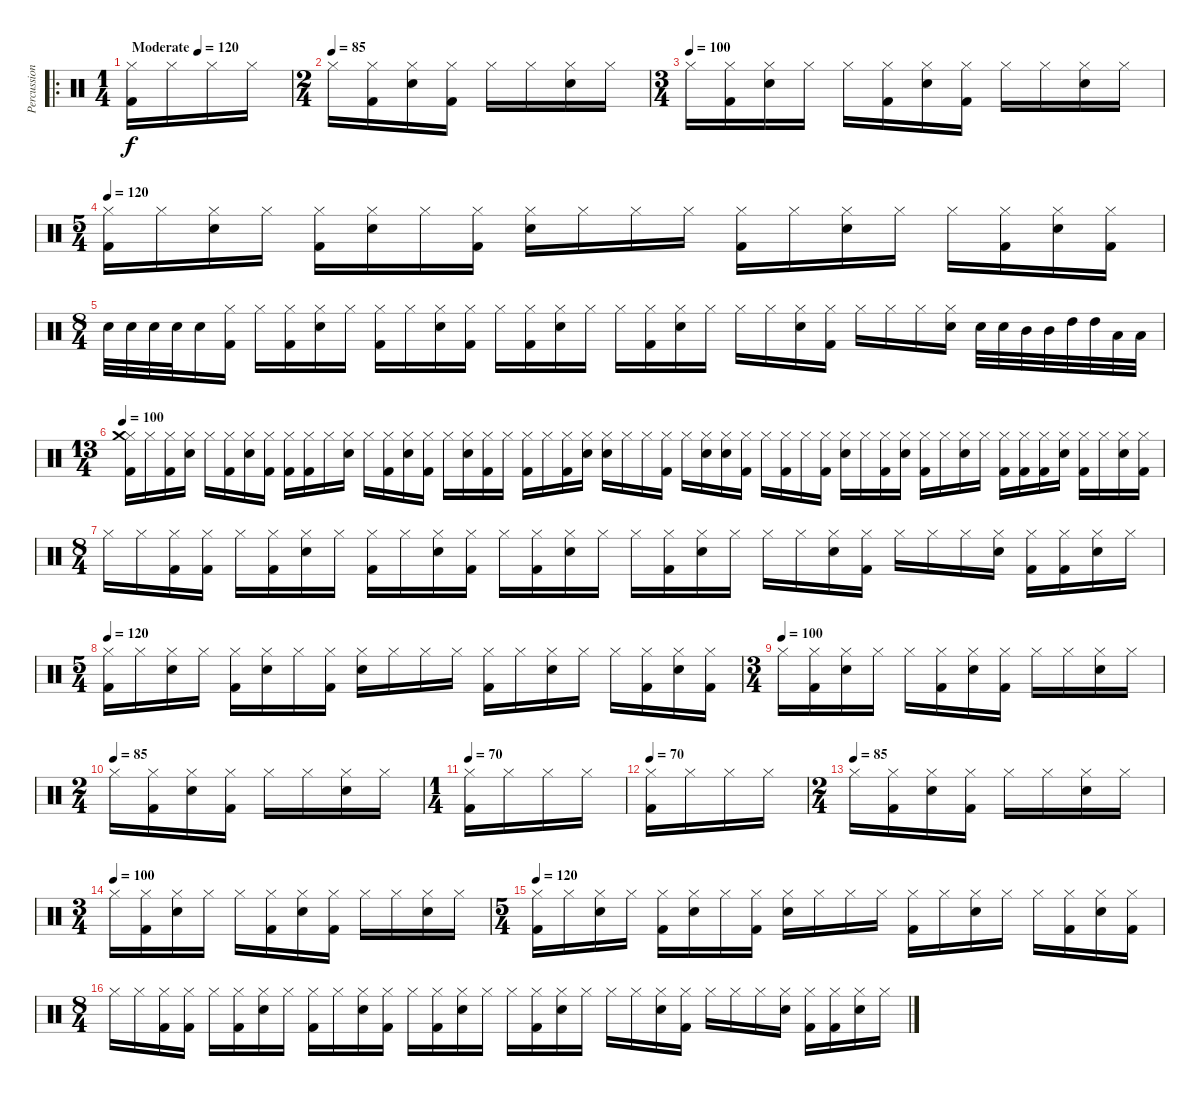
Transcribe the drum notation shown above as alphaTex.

\track ("Percussion" "Percussion") {instrument percussion}
\staff {score}
\articulation defaults
\ro
\ts (1 4)
\tempo (120 "Moderate")
\tempo 70
\tempo (120 "Moderate")
\clef neutral
\ks c
("Hi-Hat (closed)" "Kick (hit) 2").16{dy f} "Hi-Hat (closed)".16 "Hi-Hat (closed)".16 "Hi-Hat (closed)".16 |
\ts (2 4)
\tempo (85)
"Hi-Hat (closed)".16 ("Hi-Hat (closed)" "Kick (hit) 2").16 ("Hi-Hat (closed)" "Snare (hit) 2").16 ("Hi-Hat (closed)" "Kick (hit) 2").16 "Hi-Hat (closed)".16 "Hi-Hat (closed)".16 ("Hi-Hat (closed)" "Snare (hit) 2").16 "Hi-Hat (closed)".16 |
\ts (3 4)
\tempo (100)
"Hi-Hat (closed)".16 ("Hi-Hat (closed)" "Kick (hit) 2").16 ("Hi-Hat (closed)" "Snare (hit) 2").16 "Hi-Hat (closed)".16 "Hi-Hat (closed)".16 ("Hi-Hat (closed)" "Kick (hit) 2").16 ("Hi-Hat (closed)" "Snare (hit) 2").16 ("Hi-Hat (closed)" "Kick (hit) 2").16 "Hi-Hat (closed)".16 "Hi-Hat (closed)".16 ("Hi-Hat (closed)" "Snare (hit) 2").16 "Hi-Hat (closed)".16 |
\ts (5 4)
\tempo 120
("Hi-Hat (closed)" "Kick (hit) 2").16 "Hi-Hat (closed)".16 ("Hi-Hat (closed)" "Snare (hit) 2").16 "Hi-Hat (closed)".16 ("Hi-Hat (closed)" "Kick (hit) 2").16 ("Hi-Hat (closed)" "Snare (hit) 2").16 "Hi-Hat (closed)".16 ("Hi-Hat (closed)" "Kick (hit) 2").16 ("Hi-Hat (closed)" "Snare (hit) 2").16 "Hi-Hat (closed)".16 "Hi-Hat (closed)".16 "Hi-Hat (closed)".16 ("Hi-Hat (closed)" "Kick (hit) 2").16 "Hi-Hat (closed)".16 ("Hi-Hat (closed)" "Snare (hit) 2").16 "Hi-Hat (closed)".16 "Hi-Hat (closed)".16 ("Hi-Hat (closed)" "Kick (hit) 2").16 ("Hi-Hat (closed)" "Snare (hit) 2").16 ("Hi-Hat (closed)" "Kick (hit) 2").16 |
\ts (8 4)
"Snare (hit) 2".32 "Snare (hit) 2".32 "Snare (hit) 2".32 "Snare (hit) 2".32 "Snare (hit) 2".16 ("Hi-Hat (closed)" "Kick (hit) 2").16 "Hi-Hat (closed)".16 ("Hi-Hat (closed)" "Kick (hit) 2").16 ("Hi-Hat (closed)" "Snare (hit) 2").16 "Hi-Hat (closed)".16 ("Hi-Hat (closed)" "Kick (hit) 2").16 "Hi-Hat (closed)".16 ("Hi-Hat (closed)" "Snare (hit) 2").16 ("Hi-Hat (closed)" "Kick (hit) 2").16 "Hi-Hat (closed)".16 ("Hi-Hat (closed)" "Kick (hit) 2").16 ("Hi-Hat (closed)" "Snare (hit) 2").16 "Hi-Hat (closed)".16 "Hi-Hat (closed)".16 ("Hi-Hat (closed)" "Kick (hit) 2").16 ("Hi-Hat (closed)" "Snare (hit) 2").16 "Hi-Hat (closed)".16 "Hi-Hat (closed)".16 "Hi-Hat (closed)".16 ("Hi-Hat (closed)" "Snare (hit) 2").16 ("Hi-Hat (closed)" "Kick (hit) 2").16 "Hi-Hat (closed)".16 "Hi-Hat (closed)".16 "Hi-Hat (closed)".16 ("Hi-Hat (closed)" "Snare (hit) 2").16 "Snare (hit) 2".32 "Snare (hit) 2".32 "Mid Tom (hit)".32 "Mid Tom (hit)".32 "High Tom (hit)".32 "High Tom (hit)".32 "Low Tom (hit)".32 "Low Tom (hit)".32 |
\ts (13 4)
\tempo 100
("Hi-Hat (closed)" "Crash medium (hit)" "Kick (hit) 2").16 "Hi-Hat (closed)".16 ("Hi-Hat (closed)" "Kick (hit) 2").16 ("Hi-Hat (closed)" "Snare (hit) 2").16 "Hi-Hat (closed)".16 ("Hi-Hat (closed)" "Kick (hit) 2").16 ("Hi-Hat (closed)" "Snare (hit) 2").16 ("Hi-Hat (closed)" "Kick (hit) 2").16 ("Hi-Hat (closed)" "Kick (hit) 2").16 ("Hi-Hat (closed)" "Kick (hit) 2").16 "Hi-Hat (closed)".16 ("Hi-Hat (closed)" "Snare (hit) 2").16 "Hi-Hat (closed)".16 ("Hi-Hat (closed)" "Kick (hit) 2").16 ("Hi-Hat (closed)" "Snare (hit) 2").16 ("Hi-Hat (closed)" "Kick (hit) 2").16 "Hi-Hat (closed)".16 ("Hi-Hat (closed)" "Snare (hit) 2").16 ("Hi-Hat (closed)" "Kick (hit) 2").16 "Hi-Hat (closed)".16 ("Hi-Hat (closed)" "Kick (hit) 2").16 "Hi-Hat (closed)".16 ("Hi-Hat (closed)" "Kick (hit) 2").16 ("Hi-Hat (closed)" "Snare (hit) 2").16 ("Hi-Hat (closed)" "Snare (hit) 2").16 "Hi-Hat (closed)".16 "Hi-Hat (closed)".16 ("Hi-Hat (closed)" "Kick (hit) 2").16 "Hi-Hat (closed)".16 ("Hi-Hat (closed)" "Snare (hit) 2").16 ("Hi-Hat (closed)" "Snare (hit) 2").16 ("Hi-Hat (closed)" "Kick (hit) 2").16 "Hi-Hat (closed)".16 ("Hi-Hat (closed)" "Kick (hit) 2").16 "Hi-Hat (closed)".16 ("Hi-Hat (closed)" "Kick (hit) 2").16 ("Hi-Hat (closed)" "Snare (hit) 2").16 "Hi-Hat (closed)".16 ("Hi-Hat (closed)" "Kick (hit) 2").16 ("Hi-Hat (closed)" "Snare (hit) 2").16 ("Hi-Hat (closed)" "Kick (hit) 2").16 "Hi-Hat (closed)".16 ("Hi-Hat (closed)" "Snare (hit) 2").16 "Hi-Hat (closed)".16 ("Hi-Hat (closed)" "Kick (hit) 2").16 ("Hi-Hat (closed)" "Kick (hit) 2").16 ("Hi-Hat (closed)" "Kick (hit) 2").16 ("Hi-Hat (closed)" "Snare (hit) 2").16 ("Hi-Hat (closed)" "Kick (hit) 2").16 "Hi-Hat (closed)".16 ("Hi-Hat (closed)" "Snare (hit) 2").16 ("Hi-Hat (closed)" "Kick (hit) 2").16 |
\ts (8 4)
"Hi-Hat (closed)".16 "Hi-Hat (closed)".16 ("Hi-Hat (closed)" "Kick (hit) 2").16 ("Hi-Hat (closed)" "Kick (hit) 2").16 "Hi-Hat (closed)".16 ("Hi-Hat (closed)" "Kick (hit) 2").16 ("Hi-Hat (closed)" "Snare (hit) 2").16 "Hi-Hat (closed)".16 ("Hi-Hat (closed)" "Kick (hit) 2").16 "Hi-Hat (closed)".16 ("Hi-Hat (closed)" "Snare (hit) 2").16 ("Hi-Hat (closed)" "Kick (hit) 2").16 "Hi-Hat (closed)".16 ("Hi-Hat (closed)" "Kick (hit) 2").16 ("Hi-Hat (closed)" "Snare (hit) 2").16 "Hi-Hat (closed)".16 "Hi-Hat (closed)".16 ("Hi-Hat (closed)" "Kick (hit) 2").16 ("Hi-Hat (closed)" "Snare (hit) 2").16 "Hi-Hat (closed)".16 "Hi-Hat (closed)".16 "Hi-Hat (closed)".16 ("Hi-Hat (closed)" "Snare (hit) 2").16 ("Hi-Hat (closed)" "Kick (hit) 2").16 "Hi-Hat (closed)".16 "Hi-Hat (closed)".16 "Hi-Hat (closed)".16 ("Hi-Hat (closed)" "Snare (hit) 2").16 ("Hi-Hat (closed)" "Kick (hit) 2").16 ("Hi-Hat (closed)" "Kick (hit) 2").16 ("Hi-Hat (closed)" "Snare (hit) 2").16 "Hi-Hat (closed)".16 |
\ts (5 4)
\tempo 120
("Hi-Hat (closed)" "Kick (hit) 2").16 "Hi-Hat (closed)".16 ("Hi-Hat (closed)" "Snare (hit) 2").16 "Hi-Hat (closed)".16 ("Hi-Hat (closed)" "Kick (hit) 2").16 ("Hi-Hat (closed)" "Snare (hit) 2").16 "Hi-Hat (closed)".16 ("Hi-Hat (closed)" "Kick (hit) 2").16 ("Hi-Hat (closed)" "Snare (hit) 2").16 "Hi-Hat (closed)".16 "Hi-Hat (closed)".16 "Hi-Hat (closed)".16 ("Hi-Hat (closed)" "Kick (hit) 2").16 "Hi-Hat (closed)".16 ("Hi-Hat (closed)" "Snare (hit) 2").16 "Hi-Hat (closed)".16 "Hi-Hat (closed)".16 ("Hi-Hat (closed)" "Kick (hit) 2").16 ("Hi-Hat (closed)" "Snare (hit) 2").16 ("Hi-Hat (closed)" "Kick (hit) 2").16 |
\ts (3 4)
\tempo (100)
"Hi-Hat (closed)".16 ("Hi-Hat (closed)" "Kick (hit) 2").16 ("Hi-Hat (closed)" "Snare (hit) 2").16 "Hi-Hat (closed)".16 "Hi-Hat (closed)".16 ("Hi-Hat (closed)" "Kick (hit) 2").16 ("Hi-Hat (closed)" "Snare (hit) 2").16 ("Hi-Hat (closed)" "Kick (hit) 2").16 "Hi-Hat (closed)".16 "Hi-Hat (closed)".16 ("Hi-Hat (closed)" "Snare (hit) 2").16 "Hi-Hat (closed)".16 |
\ts (2 4)
\tempo (85)
"Hi-Hat (closed)".16 ("Hi-Hat (closed)" "Kick (hit) 2").16 ("Hi-Hat (closed)" "Snare (hit) 2").16 ("Hi-Hat (closed)" "Kick (hit) 2").16 "Hi-Hat (closed)".16 "Hi-Hat (closed)".16 ("Hi-Hat (closed)" "Snare (hit) 2").16 "Hi-Hat (closed)".16 |
\ts (1 4)
\tempo 70
("Hi-Hat (closed)" "Kick (hit) 2").16 "Hi-Hat (closed)".16 "Hi-Hat (closed)".16 "Hi-Hat (closed)".16 |
\tempo 70
("Hi-Hat (closed)" "Kick (hit) 2").16 "Hi-Hat (closed)".16 "Hi-Hat (closed)".16 "Hi-Hat (closed)".16 |
\ts (2 4)
\tempo (85)
"Hi-Hat (closed)".16 ("Hi-Hat (closed)" "Kick (hit) 2").16 ("Hi-Hat (closed)" "Snare (hit) 2").16 ("Hi-Hat (closed)" "Kick (hit) 2").16 "Hi-Hat (closed)".16 "Hi-Hat (closed)".16 ("Hi-Hat (closed)" "Snare (hit) 2").16 "Hi-Hat (closed)".16 |
\ts (3 4)
\tempo (100)
"Hi-Hat (closed)".16 ("Hi-Hat (closed)" "Kick (hit) 2").16 ("Hi-Hat (closed)" "Snare (hit) 2").16 "Hi-Hat (closed)".16 "Hi-Hat (closed)".16 ("Hi-Hat (closed)" "Kick (hit) 2").16 ("Hi-Hat (closed)" "Snare (hit) 2").16 ("Hi-Hat (closed)" "Kick (hit) 2").16 "Hi-Hat (closed)".16 "Hi-Hat (closed)".16 ("Hi-Hat (closed)" "Snare (hit) 2").16 "Hi-Hat (closed)".16 |
\ts (5 4)
\tempo 120
("Hi-Hat (closed)" "Kick (hit) 2").16 "Hi-Hat (closed)".16 ("Hi-Hat (closed)" "Snare (hit) 2").16 "Hi-Hat (closed)".16 ("Hi-Hat (closed)" "Kick (hit) 2").16 ("Hi-Hat (closed)" "Snare (hit) 2").16 "Hi-Hat (closed)".16 ("Hi-Hat (closed)" "Kick (hit) 2").16 ("Hi-Hat (closed)" "Snare (hit) 2").16 "Hi-Hat (closed)".16 "Hi-Hat (closed)".16 "Hi-Hat (closed)".16 ("Hi-Hat (closed)" "Kick (hit) 2").16 "Hi-Hat (closed)".16 ("Hi-Hat (closed)" "Snare (hit) 2").16 "Hi-Hat (closed)".16 "Hi-Hat (closed)".16 ("Hi-Hat (closed)" "Kick (hit) 2").16 ("Hi-Hat (closed)" "Snare (hit) 2").16 ("Hi-Hat (closed)" "Kick (hit) 2").16 |
\ts (8 4)
"Hi-Hat (closed)".16 "Hi-Hat (closed)".16 ("Hi-Hat (closed)" "Kick (hit) 2").16 ("Hi-Hat (closed)" "Kick (hit) 2").16 "Hi-Hat (closed)".16 ("Hi-Hat (closed)" "Kick (hit) 2").16 ("Hi-Hat (closed)" "Snare (hit) 2").16 "Hi-Hat (closed)".16 ("Hi-Hat (closed)" "Kick (hit) 2").16 "Hi-Hat (closed)".16 ("Hi-Hat (closed)" "Snare (hit) 2").16 ("Hi-Hat (closed)" "Kick (hit) 2").16 "Hi-Hat (closed)".16 ("Hi-Hat (closed)" "Kick (hit) 2").16 ("Hi-Hat (closed)" "Snare (hit) 2").16 "Hi-Hat (closed)".16 "Hi-Hat (closed)".16 ("Hi-Hat (closed)" "Kick (hit) 2").16 ("Hi-Hat (closed)" "Snare (hit) 2").16 "Hi-Hat (closed)".16 "Hi-Hat (closed)".16 "Hi-Hat (closed)".16 ("Hi-Hat (closed)" "Snare (hit) 2").16 ("Hi-Hat (closed)" "Kick (hit) 2").16 "Hi-Hat (closed)".16 "Hi-Hat (closed)".16 "Hi-Hat (closed)".16 ("Hi-Hat (closed)" "Snare (hit) 2").16 ("Hi-Hat (closed)" "Kick (hit) 2").16 ("Hi-Hat (closed)" "Kick (hit) 2").16 ("Hi-Hat (closed)" "Snare (hit) 2").16 "Hi-Hat (closed)".16
